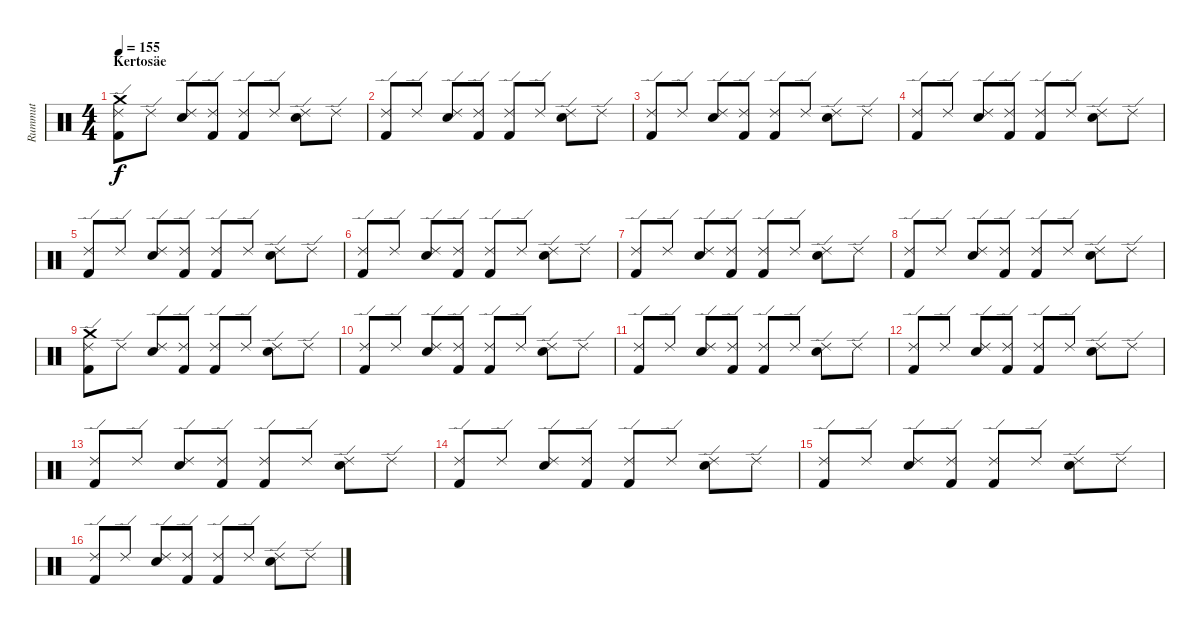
\track ("Rummut" "Rummut") {instrument percussion}
\staff {score}
\articulation defaults
\ts (4 4)
\section ("" "Kertosäe")
\tempo 155
\clef neutral
\ks c
("Kick (hit) 2" "Ride (edge) 2" "Crash medium (hit)").8{dy f} "Ride (edge) 2".8 ("Electric Snare (hit)" "Ride (edge) 2").8 ("Kick (hit) 2" "Ride (edge) 2").8 ("Kick (hit) 2" "Ride (edge) 2").8 "Ride (edge) 2".8 ("Electric Snare (hit)" "Ride (edge) 2").8 "Ride (edge) 2".8 |
("Kick (hit) 2" "Ride (edge) 2").8 "Ride (edge) 2".8 ("Electric Snare (hit)" "Ride (edge) 2").8 ("Kick (hit) 2" "Ride (edge) 2").8 ("Kick (hit) 2" "Ride (edge) 2").8 "Ride (edge) 2".8 ("Electric Snare (hit)" "Ride (edge) 2").8 "Ride (edge) 2".8 |
("Kick (hit) 2" "Ride (edge) 2").8 "Ride (edge) 2".8 ("Electric Snare (hit)" "Ride (edge) 2").8 ("Kick (hit) 2" "Ride (edge) 2").8 ("Kick (hit) 2" "Ride (edge) 2").8 "Ride (edge) 2".8 ("Electric Snare (hit)" "Ride (edge) 2").8 "Ride (edge) 2".8 |
("Kick (hit) 2" "Ride (edge) 2").8 "Ride (edge) 2".8 ("Electric Snare (hit)" "Ride (edge) 2").8 ("Kick (hit) 2" "Ride (edge) 2").8 ("Kick (hit) 2" "Ride (edge) 2").8 "Ride (edge) 2".8 ("Electric Snare (hit)" "Ride (edge) 2").8 "Ride (edge) 2".8 |
("Kick (hit) 2" "Ride (edge) 2").8 "Ride (edge) 2".8 ("Electric Snare (hit)" "Ride (edge) 2").8 ("Kick (hit) 2" "Ride (edge) 2").8 ("Kick (hit) 2" "Ride (edge) 2").8 "Ride (edge) 2".8 ("Electric Snare (hit)" "Ride (edge) 2").8 "Ride (edge) 2".8 |
("Kick (hit) 2" "Ride (edge) 2").8 "Ride (edge) 2".8 ("Electric Snare (hit)" "Ride (edge) 2").8 ("Kick (hit) 2" "Ride (edge) 2").8 ("Kick (hit) 2" "Ride (edge) 2").8 "Ride (edge) 2".8 ("Electric Snare (hit)" "Ride (edge) 2").8 "Ride (edge) 2".8 |
("Kick (hit) 2" "Ride (edge) 2").8 "Ride (edge) 2".8 ("Electric Snare (hit)" "Ride (edge) 2").8 ("Kick (hit) 2" "Ride (edge) 2").8 ("Kick (hit) 2" "Ride (edge) 2").8 "Ride (edge) 2".8 ("Electric Snare (hit)" "Ride (edge) 2").8 "Ride (edge) 2".8 |
("Kick (hit) 2" "Ride (edge) 2").8 "Ride (edge) 2".8 ("Electric Snare (hit)" "Ride (edge) 2").8 ("Kick (hit) 2" "Ride (edge) 2").8 ("Kick (hit) 2" "Ride (edge) 2").8 "Ride (edge) 2".8 ("Electric Snare (hit)" "Ride (edge) 2").8 "Ride (edge) 2".8 |
("Kick (hit) 2" "Ride (edge) 2" "Crash medium (hit)").8 "Ride (edge) 2".8 ("Electric Snare (hit)" "Ride (edge) 2").8 ("Kick (hit) 2" "Ride (edge) 2").8 ("Kick (hit) 2" "Ride (edge) 2").8 "Ride (edge) 2".8 ("Electric Snare (hit)" "Ride (edge) 2").8 "Ride (edge) 2".8 |
("Kick (hit) 2" "Ride (edge) 2").8 "Ride (edge) 2".8 ("Electric Snare (hit)" "Ride (edge) 2").8 ("Kick (hit) 2" "Ride (edge) 2").8 ("Kick (hit) 2" "Ride (edge) 2").8 "Ride (edge) 2".8 ("Electric Snare (hit)" "Ride (edge) 2").8 "Ride (edge) 2".8 |
("Kick (hit) 2" "Ride (edge) 2").8 "Ride (edge) 2".8 ("Electric Snare (hit)" "Ride (edge) 2").8 ("Kick (hit) 2" "Ride (edge) 2").8 ("Kick (hit) 2" "Ride (edge) 2").8 "Ride (edge) 2".8 ("Electric Snare (hit)" "Ride (edge) 2").8 "Ride (edge) 2".8 |
("Kick (hit) 2" "Ride (edge) 2").8 "Ride (edge) 2".8 ("Electric Snare (hit)" "Ride (edge) 2").8 ("Kick (hit) 2" "Ride (edge) 2").8 ("Kick (hit) 2" "Ride (edge) 2").8 "Ride (edge) 2".8 ("Electric Snare (hit)" "Ride (edge) 2").8 "Ride (edge) 2".8 |
("Kick (hit) 2" "Ride (edge) 2").8 "Ride (edge) 2".8 ("Electric Snare (hit)" "Ride (edge) 2").8 ("Kick (hit) 2" "Ride (edge) 2").8 ("Kick (hit) 2" "Ride (edge) 2").8 "Ride (edge) 2".8 ("Electric Snare (hit)" "Ride (edge) 2").8 "Ride (edge) 2".8 |
("Kick (hit) 2" "Ride (edge) 2").8 "Ride (edge) 2".8 ("Electric Snare (hit)" "Ride (edge) 2").8 ("Kick (hit) 2" "Ride (edge) 2").8 ("Kick (hit) 2" "Ride (edge) 2").8 "Ride (edge) 2".8 ("Electric Snare (hit)" "Ride (edge) 2").8 "Ride (edge) 2".8 |
("Kick (hit) 2" "Ride (edge) 2").8 "Ride (edge) 2".8 ("Electric Snare (hit)" "Ride (edge) 2").8 ("Kick (hit) 2" "Ride (edge) 2").8 ("Kick (hit) 2" "Ride (edge) 2").8 "Ride (edge) 2".8 ("Electric Snare (hit)" "Ride (edge) 2").8 "Ride (edge) 2".8 |
("Kick (hit) 2" "Ride (edge) 2").8 "Ride (edge) 2".8 ("Electric Snare (hit)" "Ride (edge) 2").8 ("Kick (hit) 2" "Ride (edge) 2").8 ("Kick (hit) 2" "Ride (edge) 2").8 "Ride (edge) 2".8 ("Electric Snare (hit)" "Ride (edge) 2").8 "Ride (edge) 2".8
